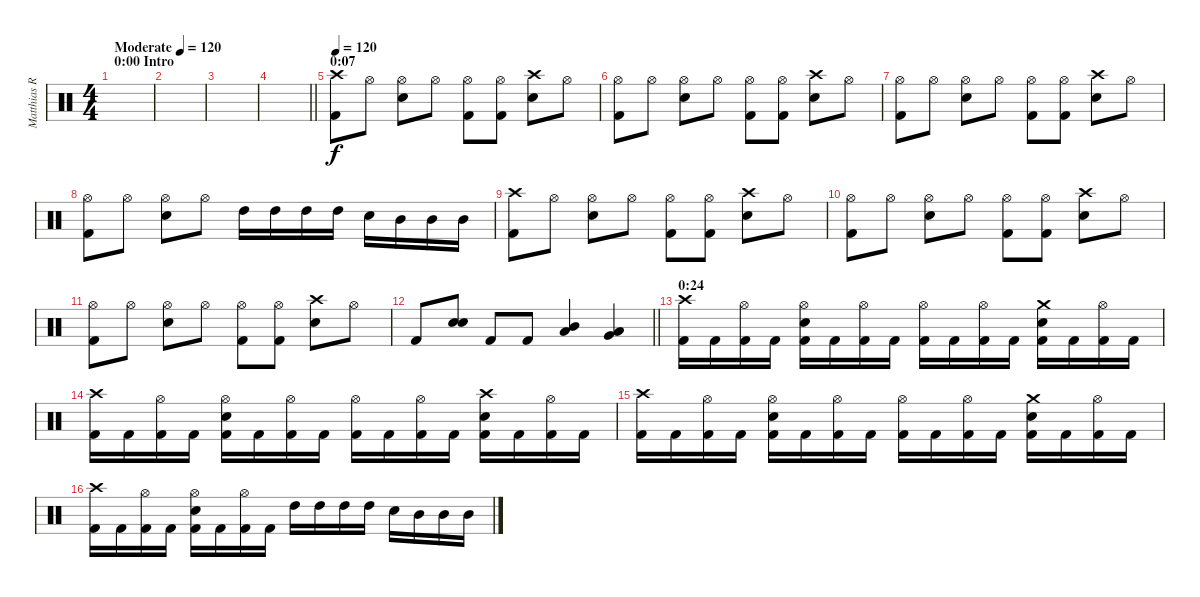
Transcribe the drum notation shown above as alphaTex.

\track ("Matthias R." "Matthias R") {instrument percussion}
\staff {score}
\articulation defaults
\ts (4 4)
\section ("" "0:00 Intro")
\tempo (120 "Moderate")
\clef neutral
\ks c
|
|
|
\barLineRight lightlight
|
\section ("" "0:07")
\tempo 120
("Kick (hit) 2" "Crash high (hit)").8 "Hi-Hat (open)".8 ("Snare (hit) 2" "Hi-Hat (open)").8 "Hi-Hat (open)".8 ("Kick (hit) 2" "Hi-Hat (open)").8 ("Kick (hit) 2" "Hi-Hat (open)").8 ("Snare (hit) 2" "Crash high (hit)").8 "Hi-Hat (open)".8 |
("Kick (hit) 2" "Hi-Hat (open)").8 "Hi-Hat (open)".8 ("Snare (hit) 2" "Hi-Hat (open)").8 "Hi-Hat (open)".8 ("Kick (hit) 2" "Hi-Hat (open)").8 ("Kick (hit) 2" "Hi-Hat (open)").8 ("Snare (hit) 2" "Crash high (hit)").8 "Hi-Hat (open)".8 |
("Kick (hit) 2" "Hi-Hat (open)").8 "Hi-Hat (open)".8 ("Snare (hit) 2" "Hi-Hat (open)").8 "Hi-Hat (open)".8 ("Kick (hit) 2" "Hi-Hat (open)").8 ("Kick (hit) 2" "Hi-Hat (open)").8 ("Snare (hit) 2" "Crash high (hit)").8 "Hi-Hat (open)".8 |
("Kick (hit) 2" "Hi-Hat (open)").8 "Hi-Hat (open)".8 ("Snare (hit) 2" "Hi-Hat (open)").8 "Hi-Hat (open)".8 "High Tom (hit)".16 "High Tom (hit)".16 "High Tom (hit)".16 "High Tom (hit)".16 "Snare (hit) 2".16 "Mid Tom (hit)".16 "Mid Tom (hit)".16 "Mid Tom (hit)".16 |
("Kick (hit) 2" "Crash high (hit)").8 "Hi-Hat (open)".8 ("Snare (hit) 2" "Hi-Hat (open)").8 "Hi-Hat (open)".8 ("Kick (hit) 2" "Hi-Hat (open)").8 ("Kick (hit) 2" "Hi-Hat (open)").8 ("Snare (hit) 2" "Crash high (hit)").8 "Hi-Hat (open)".8 |
("Kick (hit) 2" "Hi-Hat (open)").8 "Hi-Hat (open)".8 ("Snare (hit) 2" "Hi-Hat (open)").8 "Hi-Hat (open)".8 ("Kick (hit) 2" "Hi-Hat (open)").8 ("Kick (hit) 2" "Hi-Hat (open)").8 ("Snare (hit) 2" "Crash high (hit)").8 "Hi-Hat (open)".8 |
("Kick (hit) 2" "Hi-Hat (open)").8 "Hi-Hat (open)".8 ("Snare (hit) 2" "Hi-Hat (open)").8 "Hi-Hat (open)".8 ("Kick (hit) 2" "Hi-Hat (open)").8 ("Kick (hit) 2" "Hi-Hat (open)").8 ("Snare (hit) 2" "Crash high (hit)").8 "Hi-Hat (open)".8 |
\barLineRight lightlight "Kick (hit) 2".8
("Snare (hit) 2" "Snare (hit) 2").8{bu 240} "Kick (hit) 2".8 "Kick (hit) 2".8 ("Low Tom (hit)" "Mid Tom (hit)").4 ("Very Low Tom (hit)" "Low Tom (hit)").4 |
\section ("" "0:24")
("Kick (hit) 2" "Crash high (hit)").16 "Kick (hit) 2".16 ("Kick (hit) 2" "Hi-Hat (open)").16 "Kick (hit) 2".16 ("Kick (hit) 2" "Snare (hit) 2" "Hi-Hat (open)").16 "Kick (hit) 2".16 ("Kick (hit) 2" "Hi-Hat (open)").16 "Kick (hit) 2".16 ("Kick (hit) 2" "Hi-Hat (open)").16 "Kick (hit) 2".16 ("Kick (hit) 2" "Hi-Hat (open)").16 "Kick (hit) 2".16 ("Kick (hit) 2" "Snare (hit) 2" "Crash medium (hit)").16 "Kick (hit) 2".16 ("Kick (hit) 2" "Hi-Hat (open)").16 "Kick (hit) 2".16 |
("Kick (hit) 2" "Crash high (hit)").16 "Kick (hit) 2".16 ("Kick (hit) 2" "Hi-Hat (open)").16 "Kick (hit) 2".16 ("Kick (hit) 2" "Snare (hit) 2" "Hi-Hat (open)").16 "Kick (hit) 2".16 ("Kick (hit) 2" "Hi-Hat (open)").16 "Kick (hit) 2".16 ("Kick (hit) 2" "Hi-Hat (open)").16 "Kick (hit) 2".16 ("Kick (hit) 2" "Hi-Hat (open)").16 "Kick (hit) 2".16 ("Kick (hit) 2" "Snare (hit) 2" "Crash high (hit)").16 "Kick (hit) 2".16 ("Kick (hit) 2" "Hi-Hat (open)").16 "Kick (hit) 2".16 |
("Kick (hit) 2" "Crash high (hit)").16 "Kick (hit) 2".16 ("Kick (hit) 2" "Hi-Hat (open)").16 "Kick (hit) 2".16 ("Kick (hit) 2" "Snare (hit) 2" "Hi-Hat (open)").16 "Kick (hit) 2".16 ("Kick (hit) 2" "Hi-Hat (open)").16 "Kick (hit) 2".16 ("Kick (hit) 2" "Hi-Hat (open)").16 "Kick (hit) 2".16 ("Kick (hit) 2" "Hi-Hat (open)").16 "Kick (hit) 2".16 ("Kick (hit) 2" "Snare (hit) 2" "Crash medium (hit)").16 "Kick (hit) 2".16 ("Kick (hit) 2" "Hi-Hat (open)").16 "Kick (hit) 2".16 |
("Kick (hit) 2" "Crash high (hit)").16 "Kick (hit) 2".16 ("Kick (hit) 2" "Hi-Hat (open)").16 "Kick (hit) 2".16 ("Kick (hit) 2" "Snare (hit) 2" "Hi-Hat (open)").16 "Kick (hit) 2".16 ("Kick (hit) 2" "Hi-Hat (open)").16 "Kick (hit) 2".16 "High Tom (hit)".16 "High Tom (hit)".16 "High Tom (hit)".16 "High Tom (hit)".16 "Snare (hit) 2".16 "Mid Tom (hit)".16 "Mid Tom (hit)".16 "Mid Tom (hit)".16
